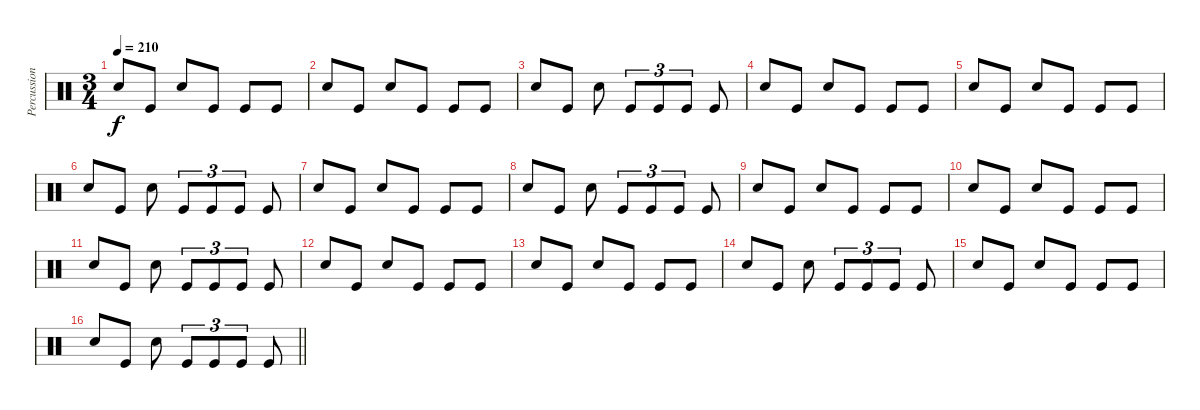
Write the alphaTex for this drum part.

\track ("Percussion" "Percussion") {instrument percussion}
\staff
\articulation defaults
\ts (3 4)
\tempo 200
\tempo 210
\clef neutral
\ks c "Snare (hit) 2".8{dy f} "Kick (hit)".8 "Snare (hit) 2".8 "Kick (hit)".8 "Kick (hit)".8 "Kick (hit)".8
|
"Snare (hit) 2".8 "Kick (hit)".8 "Snare (hit) 2".8 "Kick (hit)".8 "Kick (hit)".8 "Kick (hit)".8 |
"Snare (hit) 2".8 "Kick (hit)".8 "Snare (hit) 2".8 "Kick (hit)".8{tu (3 2)} "Kick (hit)".8{tu (3 2)} "Kick (hit)".8{tu (3 2)} "Kick (hit)".8 |
"Snare (hit) 2".8 "Kick (hit)".8 "Snare (hit) 2".8 "Kick (hit)".8 "Kick (hit)".8 "Kick (hit)".8 |
"Snare (hit) 2".8 "Kick (hit)".8 "Snare (hit) 2".8 "Kick (hit)".8 "Kick (hit)".8 "Kick (hit)".8 |
"Snare (hit) 2".8 "Kick (hit)".8 "Snare (hit) 2".8 "Kick (hit)".8{tu (3 2)} "Kick (hit)".8{tu (3 2)} "Kick (hit)".8{tu (3 2)} "Kick (hit)".8 |
"Snare (hit) 2".8 "Kick (hit)".8 "Snare (hit) 2".8 "Kick (hit)".8 "Kick (hit)".8 "Kick (hit)".8 |
"Snare (hit) 2".8 "Kick (hit)".8 "Snare (hit) 2".8 "Kick (hit)".8{tu (3 2)} "Kick (hit)".8{tu (3 2)} "Kick (hit)".8{tu (3 2)} "Kick (hit)".8 |
"Snare (hit) 2".8 "Kick (hit)".8 "Snare (hit) 2".8 "Kick (hit)".8 "Kick (hit)".8 "Kick (hit)".8 |
"Snare (hit) 2".8 "Kick (hit)".8 "Snare (hit) 2".8 "Kick (hit)".8 "Kick (hit)".8 "Kick (hit)".8 |
"Snare (hit) 2".8 "Kick (hit)".8 "Snare (hit) 2".8 "Kick (hit)".8{tu (3 2)} "Kick (hit)".8{tu (3 2)} "Kick (hit)".8{tu (3 2)} "Kick (hit)".8 |
"Snare (hit) 2".8 "Kick (hit)".8 "Snare (hit) 2".8 "Kick (hit)".8 "Kick (hit)".8 "Kick (hit)".8 |
"Snare (hit) 2".8 "Kick (hit)".8 "Snare (hit) 2".8 "Kick (hit)".8 "Kick (hit)".8 "Kick (hit)".8 |
"Snare (hit) 2".8 "Kick (hit)".8 "Snare (hit) 2".8 "Kick (hit)".8{tu (3 2)} "Kick (hit)".8{tu (3 2)} "Kick (hit)".8{tu (3 2)} "Kick (hit)".8 |
"Snare (hit) 2".8 "Kick (hit)".8 "Snare (hit) 2".8 "Kick (hit)".8 "Kick (hit)".8 "Kick (hit)".8 |
\barLineRight lightlight "Snare (hit) 2".8 "Kick (hit)".8 "Snare (hit) 2".8 "Kick (hit)".8{tu (3 2)} "Kick (hit)".8{tu (3 2)} "Kick (hit)".8{tu (3 2)} "Kick (hit)".8
